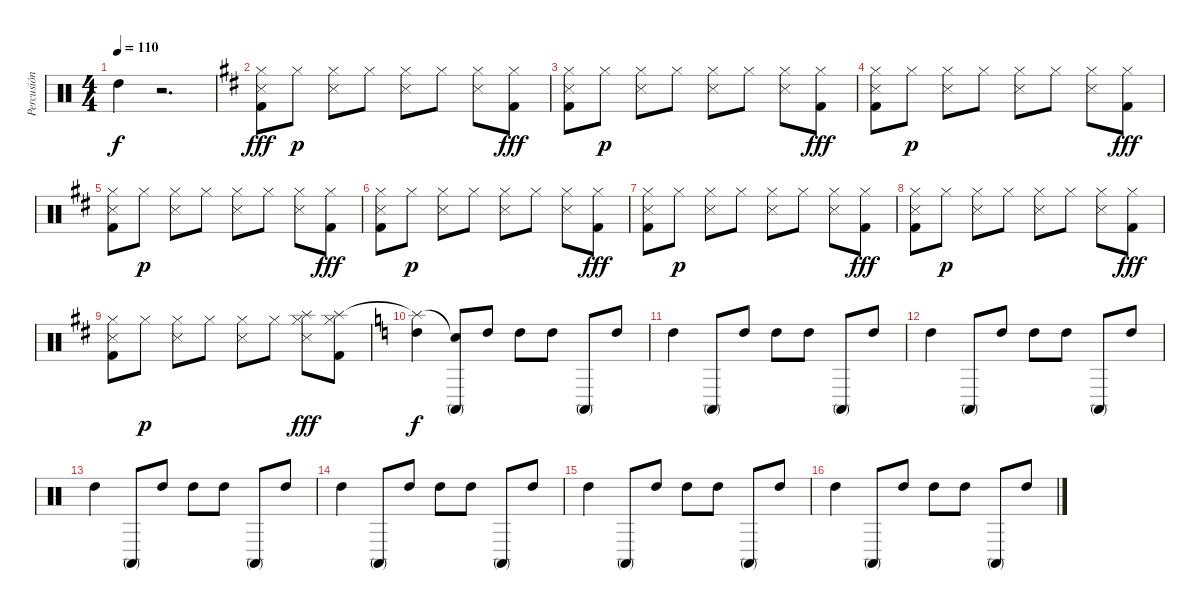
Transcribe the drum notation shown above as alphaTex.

\track ("Percusión" "Percusión") {instrument percussion}
\staff {score}
\articulation defaults
\ts (4 4)
\tempo 110
\clef neutral
\ks c "High Tom (hit)".4{dy f}
r.2{d} |
\ks d
("Hi-Hat (closed)" "Snare (side stick) 3" "Kick (hit) 2").8{dy fff volume 10} "Hi-Hat (closed)".8{dy p} ("Hi-Hat (closed)" "Snare (side stick) 3").8 "Hi-Hat (closed)".8 ("Hi-Hat (closed)" "Snare (side stick) 3").8 "Hi-Hat (closed)".8 ("Hi-Hat (closed)" "Snare (side stick) 3").8 ("Hi-Hat (closed)" "Kick (hit) 2").8{dy fff} |
("Hi-Hat (closed)" "Snare (side stick) 3" "Kick (hit) 2").8 "Hi-Hat (closed)".8{dy p} ("Hi-Hat (closed)" "Snare (side stick) 3").8 "Hi-Hat (closed)".8 ("Hi-Hat (closed)" "Snare (side stick) 3").8 "Hi-Hat (closed)".8 ("Hi-Hat (closed)" "Snare (side stick) 3").8 ("Hi-Hat (closed)" "Kick (hit) 2").8{dy fff} |
("Hi-Hat (closed)" "Snare (side stick) 3" "Kick (hit) 2").8 "Hi-Hat (closed)".8{dy p} ("Hi-Hat (closed)" "Snare (side stick) 3").8 "Hi-Hat (closed)".8 ("Hi-Hat (closed)" "Snare (side stick) 3").8 "Hi-Hat (closed)".8 ("Hi-Hat (closed)" "Snare (side stick) 3").8 ("Hi-Hat (closed)" "Kick (hit) 2").8{dy fff} |
("Hi-Hat (closed)" "Snare (side stick) 3" "Kick (hit) 2").8 "Hi-Hat (closed)".8{dy p} ("Hi-Hat (closed)" "Snare (side stick) 3").8 "Hi-Hat (closed)".8 ("Hi-Hat (closed)" "Snare (side stick) 3").8 "Hi-Hat (closed)".8 ("Hi-Hat (closed)" "Snare (side stick) 3").8 ("Hi-Hat (closed)" "Kick (hit) 2").8{dy fff} |
("Hi-Hat (closed)" "Snare (side stick) 3" "Kick (hit) 2").8 "Hi-Hat (closed)".8{dy p} ("Hi-Hat (closed)" "Snare (side stick) 3").8 "Hi-Hat (closed)".8 ("Hi-Hat (closed)" "Snare (side stick) 3").8 "Hi-Hat (closed)".8 ("Hi-Hat (closed)" "Snare (side stick) 3").8 ("Hi-Hat (closed)" "Kick (hit) 2").8{dy fff} |
("Hi-Hat (closed)" "Snare (side stick) 3" "Kick (hit) 2").8 "Hi-Hat (closed)".8{dy p} ("Hi-Hat (closed)" "Snare (side stick) 3").8 "Hi-Hat (closed)".8 ("Hi-Hat (closed)" "Snare (side stick) 3").8 "Hi-Hat (closed)".8 ("Hi-Hat (closed)" "Snare (side stick) 3").8 ("Hi-Hat (closed)" "Kick (hit) 2").8{dy fff} |
("Hi-Hat (closed)" "Snare (side stick) 3" "Kick (hit) 2").8 "Hi-Hat (closed)".8{dy p} ("Hi-Hat (closed)" "Snare (side stick) 3").8 "Hi-Hat (closed)".8 ("Hi-Hat (closed)" "Snare (side stick) 3").8 "Hi-Hat (closed)".8 ("Hi-Hat (closed)" "Snare (side stick) 3").8 ("Hi-Hat (closed)" "Kick (hit) 2").8{dy fff} |
("Hi-Hat (closed)" "Snare (side stick) 3" "Kick (hit) 2").8 "Hi-Hat (closed)".8{dy p} ("Hi-Hat (closed)" "Snare (side stick) 3").8 "Hi-Hat (closed)".8 ("Hi-Hat (closed)" "Snare (side stick) 3").8 "Hi-Hat (closed)".8 ("Hi-Hat (closed)" "Snare (side stick) 3" "Splash (hit)").8{dy fff} ("Hi-Hat (closed)" "Splash (hit)" "Kick (hit) 2").8 |
\ks c
("High Tom (hit)" "Splash (hit)"{t}).4{dy f volume 5} ("Conga high (mute)" "Snare (hit)"{t}).8 "High Tom (hit)".8 "High Tom (hit)".8 "High Tom (hit)".8 "Conga high (mute)".8 "High Tom (hit)".8 |
"High Tom (hit)".4 "Conga high (mute)".8 "High Tom (hit)".8 "High Tom (hit)".8 "High Tom (hit)".8 "Conga high (mute)".8 "High Tom (hit)".8 |
"High Tom (hit)".4 "Conga high (mute)".8 "High Tom (hit)".8 "High Tom (hit)".8 "High Tom (hit)".8 "Conga high (mute)".8 "High Tom (hit)".8 |
"High Tom (hit)".4 "Conga high (mute)".8 "High Tom (hit)".8 "High Tom (hit)".8 "High Tom (hit)".8 "Conga high (mute)".8 "High Tom (hit)".8 |
"High Tom (hit)".4 "Conga high (mute)".8 "High Tom (hit)".8 "High Tom (hit)".8 "High Tom (hit)".8 "Conga high (mute)".8 "High Tom (hit)".8 |
"High Tom (hit)".4 "Conga high (mute)".8 "High Tom (hit)".8 "High Tom (hit)".8 "High Tom (hit)".8 "Conga high (mute)".8 "High Tom (hit)".8 |
"High Tom (hit)".4 "Conga high (mute)".8 "High Tom (hit)".8 "High Tom (hit)".8 "High Tom (hit)".8 "Conga high (mute)".8 "High Tom (hit)".8
